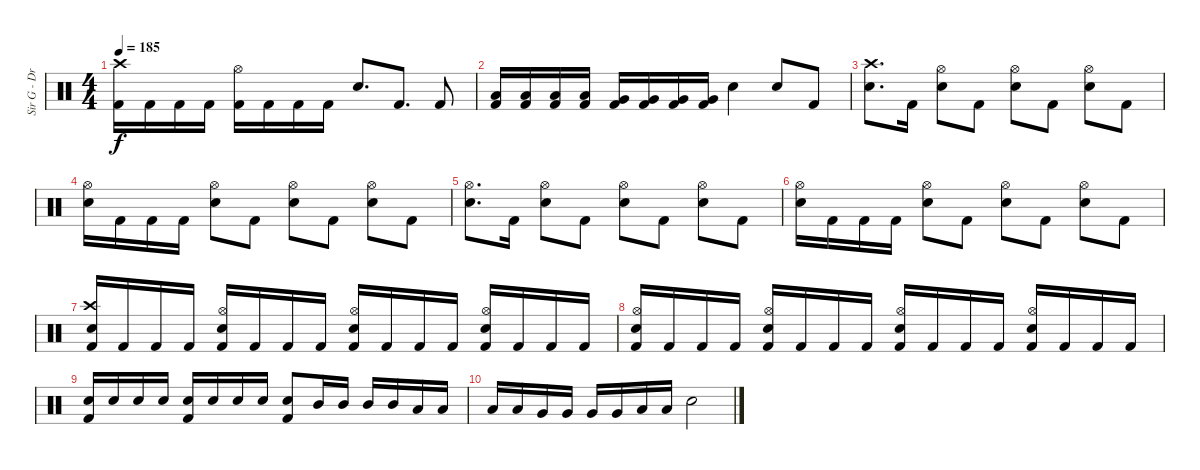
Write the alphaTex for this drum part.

\track ("Sir G - Drums" "Sir G - Dr") {instrument percussion}
\staff {score}
\articulation defaults
\ts (4 4)
\tempo 185
\clef neutral
\ks c
("Kick (hit) 2" "Crash high (hit)").16{dy f} "Kick (hit) 2".16 "Kick (hit) 2".16 "Kick (hit) 2".16 ("Kick (hit) 2" "Hi-Hat (open)").16 "Kick (hit) 2".16 "Kick (hit) 2".16 "Kick (hit) 2".16 "Electric Snare (hit)".8{d} "Kick (hit) 2".8{d} "Kick (hit) 2".8 |
("Kick (hit) 2" "Low Tom (hit)").16 ("Kick (hit) 2" "Low Tom (hit)").16 ("Kick (hit) 2" "Low Tom (hit)").16 ("Kick (hit) 2" "Low Tom (hit)").16 ("Kick (hit) 2" "Very Low Tom (hit)").16 ("Kick (hit) 2" "Very Low Tom (hit)").16 ("Kick (hit) 2" "Very Low Tom (hit)").16 ("Kick (hit) 2" "Very Low Tom (hit)").16 "Electric Snare (hit)".4 "Electric Snare (hit)".8 "Kick (hit) 2".8 |
("Electric Snare (hit)" "Crash high (hit)").8{d} "Kick (hit) 2".16 ("Electric Snare (hit)" "Hi-Hat (open)").8 "Kick (hit) 2".8 ("Electric Snare (hit)" "Hi-Hat (open)").8 "Kick (hit) 2".8 ("Electric Snare (hit)" "Hi-Hat (open)").8 "Kick (hit) 2".8 |
("Electric Snare (hit)" "Hi-Hat (open)").16 "Kick (hit) 2".16 "Kick (hit) 2".16 "Kick (hit) 2".16 ("Electric Snare (hit)" "Hi-Hat (open)").8 "Kick (hit) 2".8 ("Electric Snare (hit)" "Hi-Hat (open)").8 "Kick (hit) 2".8 ("Electric Snare (hit)" "Hi-Hat (open)").8 "Kick (hit) 2".8 |
("Electric Snare (hit)" "Hi-Hat (open)").8{d} "Kick (hit) 2".16 ("Electric Snare (hit)" "Hi-Hat (open)").8 "Kick (hit) 2".8 ("Electric Snare (hit)" "Hi-Hat (open)").8 "Kick (hit) 2".8 ("Electric Snare (hit)" "Hi-Hat (open)").8 "Kick (hit) 2".8 |
("Electric Snare (hit)" "Hi-Hat (open)").16 "Kick (hit) 2".16 "Kick (hit) 2".16 "Kick (hit) 2".16 ("Electric Snare (hit)" "Hi-Hat (open)").8 "Kick (hit) 2".8 ("Electric Snare (hit)" "Hi-Hat (open)").8 "Kick (hit) 2".8 ("Electric Snare (hit)" "Hi-Hat (open)").8 "Kick (hit) 2".8 |
("Kick (hit) 2" "Electric Snare (hit)" "Crash high (hit)").16 "Kick (hit) 2".16 "Kick (hit) 2".16 "Kick (hit) 2".16 ("Kick (hit) 2" "Electric Snare (hit)" "Hi-Hat (open)").16 "Kick (hit) 2".16 "Kick (hit) 2".16 "Kick (hit) 2".16 ("Kick (hit) 2" "Electric Snare (hit)" "Hi-Hat (open)").16 "Kick (hit) 2".16 "Kick (hit) 2".16 "Kick (hit) 2".16 ("Kick (hit) 2" "Electric Snare (hit)" "Hi-Hat (open)").16 "Kick (hit) 2".16 "Kick (hit) 2".16 "Kick (hit) 2".16 |
("Kick (hit) 2" "Electric Snare (hit)" "Hi-Hat (open)").16 "Kick (hit) 2".16 "Kick (hit) 2".16 "Kick (hit) 2".16 ("Kick (hit) 2" "Electric Snare (hit)" "Hi-Hat (open)").16 "Kick (hit) 2".16 "Kick (hit) 2".16 "Kick (hit) 2".16 ("Kick (hit) 2" "Electric Snare (hit)" "Hi-Hat (open)").16 "Kick (hit) 2".16 "Kick (hit) 2".16 "Kick (hit) 2".16 ("Kick (hit) 2" "Electric Snare (hit)" "Hi-Hat (open)").16 "Kick (hit) 2".16 "Kick (hit) 2".16 "Kick (hit) 2".16 |
("Kick (hit) 2" "Electric Snare (hit)").16 "Electric Snare (hit)".16 "Electric Snare (hit)".16 "Electric Snare (hit)".16 ("Kick (hit) 2" "Electric Snare (hit)").16 "Electric Snare (hit)".16 "Electric Snare (hit)".16 "Electric Snare (hit)".16 ("Kick (hit) 2" "Electric Snare (hit)").8 "Mid Tom (hit)".16 "Mid Tom (hit)".16 "Mid Tom (hit)".16 "Mid Tom (hit)".16 "Low Tom (hit)".16 "Low Tom (hit)".16 |
"Low Tom (hit)".16 "Low Tom (hit)".16 "Very Low Tom (hit)".16 "Very Low Tom (hit)".16 "Very Low Tom (hit)".16 "Very Low Tom (hit)".16 "Low Floor Tom (hit)".16 "Low Floor Tom (hit)".16 "Electric Snare (hit)".2
